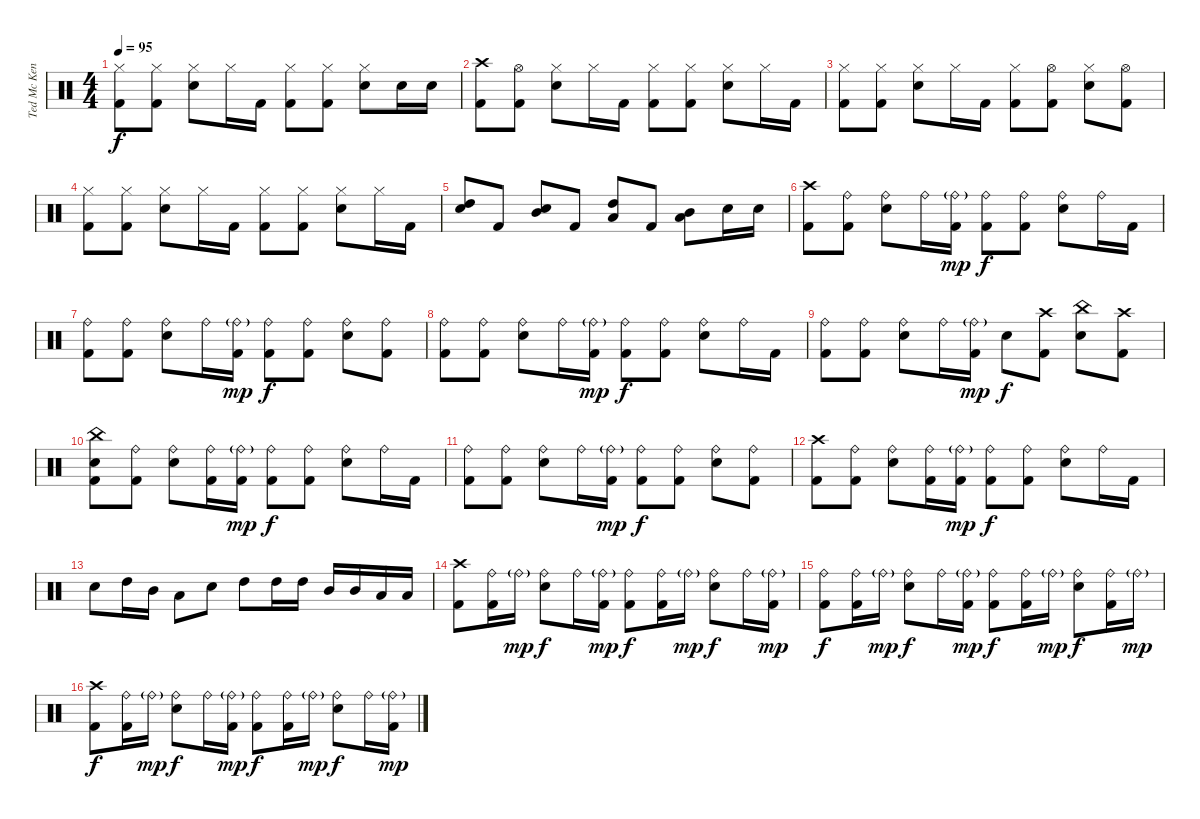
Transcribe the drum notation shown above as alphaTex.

\track ("Ted Mc Kenna" "Ted Mc Ken") {instrument percussion}
\staff {score}
\articulation defaults
\ts (4 4)
\tempo 95
\clef neutral
\ks c
("Hi-Hat (closed)" "Kick (hit) 2").8{dy f} ("Hi-Hat (closed)" "Kick (hit) 2").8 ("Hi-Hat (closed)" "Snare (hit) 2").8 "Hi-Hat (closed)".16 "Kick (hit) 2".16 ("Hi-Hat (closed)" "Kick (hit) 2").8 ("Hi-Hat (closed)" "Kick (hit) 2").8 ("Hi-Hat (closed)" "Snare (hit) 2").8 "Snare (hit) 2".16 "Snare (hit) 2".16 |
("Crash high (hit)" "Kick (hit) 2").8 ("Hi-Hat (open)" "Kick (hit) 2").8 ("Hi-Hat (closed)" "Snare (hit) 2").8 "Hi-Hat (closed)".16 "Kick (hit) 2".16 ("Hi-Hat (closed)" "Kick (hit) 2").8 ("Hi-Hat (closed)" "Kick (hit) 2").8 ("Hi-Hat (closed)" "Snare (hit) 2").8 "Hi-Hat (closed)".16 "Kick (hit) 2".16 |
("Hi-Hat (closed)" "Kick (hit) 2").8 ("Hi-Hat (closed)" "Kick (hit) 2").8 ("Hi-Hat (closed)" "Snare (hit) 2").8 "Hi-Hat (closed)".16 "Kick (hit) 2".16 ("Hi-Hat (closed)" "Kick (hit) 2").8 ("Hi-Hat (open)" "Kick (hit) 2").8 ("Hi-Hat (closed)" "Snare (hit) 2").8 ("Hi-Hat (open)" "Kick (hit) 2").8 |
("Hi-Hat (closed)" "Kick (hit) 2").8 ("Hi-Hat (closed)" "Kick (hit) 2").8 ("Hi-Hat (closed)" "Snare (hit) 2").8 "Hi-Hat (closed)".16 "Kick (hit) 2".16 ("Hi-Hat (closed)" "Kick (hit) 2").8 ("Hi-Hat (closed)" "Kick (hit) 2").8 ("Hi-Hat (closed)" "Snare (hit) 2").8 "Hi-Hat (closed)".16 "Kick (hit) 2".16 |
("High Tom (hit)" "Snare (hit) 2").8 "Kick (hit) 2".8 ("Mid Tom (hit)" "Snare (hit) 2").8 "Kick (hit) 2".8 ("High Tom (hit)" "Low Tom (hit)").8 "Kick (hit) 2".8 ("Mid Tom (hit)" "Low Tom (hit)").8 "Snare (hit) 2".16 "Snare (hit) 2".16 |
("Crash high (hit)" "Kick (hit) 2").8 ("Ride (bell)" "Kick (hit) 2").8 ("Ride (bell)" "Snare (hit) 2").8 "Ride (bell)".16 ("Ride (bell)"{g} "Kick (hit) 2").16{dy mp} ("Ride (bell)" "Kick (hit) 2").8{dy f} ("Ride (bell)" "Kick (hit) 2").8 ("Ride (bell)" "Snare (hit) 2").8 "Ride (bell)".16 "Kick (hit) 2".16 |
("Ride (bell)" "Kick (hit) 2").8 ("Ride (bell)" "Kick (hit) 2").8 ("Ride (bell)" "Snare (hit) 2").8 "Ride (bell)".16 ("Ride (bell)"{g} "Kick (hit) 2").16{dy mp} ("Ride (bell)" "Kick (hit) 2").8{dy f} ("Ride (bell)" "Kick (hit) 2").8 ("Ride (bell)" "Snare (hit) 2").8 ("Ride (bell)" "Kick (hit) 2").8 |
("Ride (bell)" "Kick (hit) 2").8 ("Ride (bell)" "Kick (hit) 2").8 ("Ride (bell)" "Snare (hit) 2").8 "Ride (bell)".16 ("Ride (bell)"{g} "Kick (hit) 2").16{dy mp} ("Ride (bell)" "Kick (hit) 2").8{dy f} ("Ride (bell)" "Kick (hit) 2").8 ("Ride (bell)" "Snare (hit) 2").8 "Ride (bell)".16 "Kick (hit) 2".16 |
("Ride (bell)" "Kick (hit) 2").8 ("Ride (bell)" "Kick (hit) 2").8 ("Ride (bell)" "Snare (hit) 2").8 "Ride (bell)".16 ("Ride (bell)"{g} "Kick (hit) 2").16{dy mp} "Snare (hit) 2".8{dy f} ("Crash high (hit)" "Kick (hit) 2").8 ("China (hit)" "Snare (hit) 2").8 ("Crash high (hit)" "Kick (hit) 2").8 |
("China (hit)" "Snare (hit) 2" "Kick (hit) 2").8 ("Ride (bell)" "Kick (hit) 2").8 ("Ride (bell)" "Snare (hit) 2").8 ("Ride (bell)" "Kick (hit) 2").16 ("Ride (bell)"{g} "Kick (hit) 2").16{dy mp} ("Ride (bell)" "Kick (hit) 2").8{dy f} ("Ride (bell)" "Kick (hit) 2").8 ("Ride (bell)" "Snare (hit) 2").8 "Ride (bell)".16 "Kick (hit) 2".16 |
("Ride (bell)" "Kick (hit) 2").8 ("Ride (bell)" "Kick (hit) 2").8 ("Ride (bell)" "Snare (hit) 2").8 "Ride (bell)".16 ("Ride (bell)"{g} "Kick (hit) 2").16{dy mp} ("Ride (bell)" "Kick (hit) 2").8{dy f} ("Ride (bell)" "Kick (hit) 2").8 ("Ride (bell)" "Snare (hit) 2").8 ("Ride (bell)" "Kick (hit) 2").8 |
("Crash high (hit)" "Kick (hit) 2").8 ("Ride (bell)" "Kick (hit) 2").8 ("Ride (bell)" "Snare (hit) 2").8 ("Ride (bell)" "Kick (hit) 2").16 ("Ride (bell)"{g} "Kick (hit) 2").16{dy mp} ("Ride (bell)" "Kick (hit) 2").8{dy f} ("Ride (bell)" "Kick (hit) 2").8 ("Ride (bell)" "Snare (hit) 2").8 "Ride (bell)".16 "Kick (hit) 2".16 |
"Snare (hit) 2".8 "High Tom (hit)".16 "Mid Tom (hit)".16 "Low Tom (hit)".8 "Snare (hit) 2".8 "High Tom (hit)".8 "High Tom (hit)".16 "High Tom (hit)".16 "Mid Tom (hit)".16 "Mid Tom (hit)".16 "Low Tom (hit)".16 "Low Tom (hit)".16 |
("Crash high (hit)" "Kick (hit) 2").8 ("Ride (bell)" "Kick (hit) 2").16 "Ride (bell)"{g}.16{dy mp} ("Ride (bell)" "Snare (hit) 2").8{dy f} "Ride (bell)".16 ("Ride (bell)"{g} "Kick (hit) 2").16{dy mp} ("Ride (bell)" "Kick (hit) 2").8{dy f} ("Ride (bell)" "Kick (hit) 2").16 "Ride (bell)"{g}.16{dy mp} ("Ride (bell)" "Snare (hit) 2").8{dy f} "Ride (bell)".16 ("Ride (bell)"{g} "Kick (hit) 2").16{dy mp} |
("Ride (bell)" "Kick (hit) 2").8{dy f} ("Ride (bell)" "Kick (hit) 2").16 "Ride (bell)"{g}.16{dy mp} ("Ride (bell)" "Snare (hit) 2").8{dy f} "Ride (bell)".16 ("Ride (bell)"{g} "Kick (hit) 2").16{dy mp} ("Ride (bell)" "Kick (hit) 2").8{dy f} ("Ride (bell)" "Kick (hit) 2").16 "Ride (bell)"{g}.16{dy mp} ("Ride (bell)" "Snare (hit) 2").8{dy f} ("Ride (bell)" "Kick (hit) 2").16 "Ride (bell)"{g}.16{dy mp} |
("Crash high (hit)" "Kick (hit) 2").8{dy f} ("Ride (bell)" "Kick (hit) 2").16 "Ride (bell)"{g}.16{dy mp} ("Ride (bell)" "Snare (hit) 2").8{dy f} "Ride (bell)".16 ("Ride (bell)"{g} "Kick (hit) 2").16{dy mp} ("Ride (bell)" "Kick (hit) 2").8{dy f} ("Ride (bell)" "Kick (hit) 2").16 "Ride (bell)"{g}.16{dy mp} ("Ride (bell)" "Snare (hit) 2").8{dy f} "Ride (bell)".16 ("Ride (bell)"{g} "Kick (hit) 2").16{dy mp}
